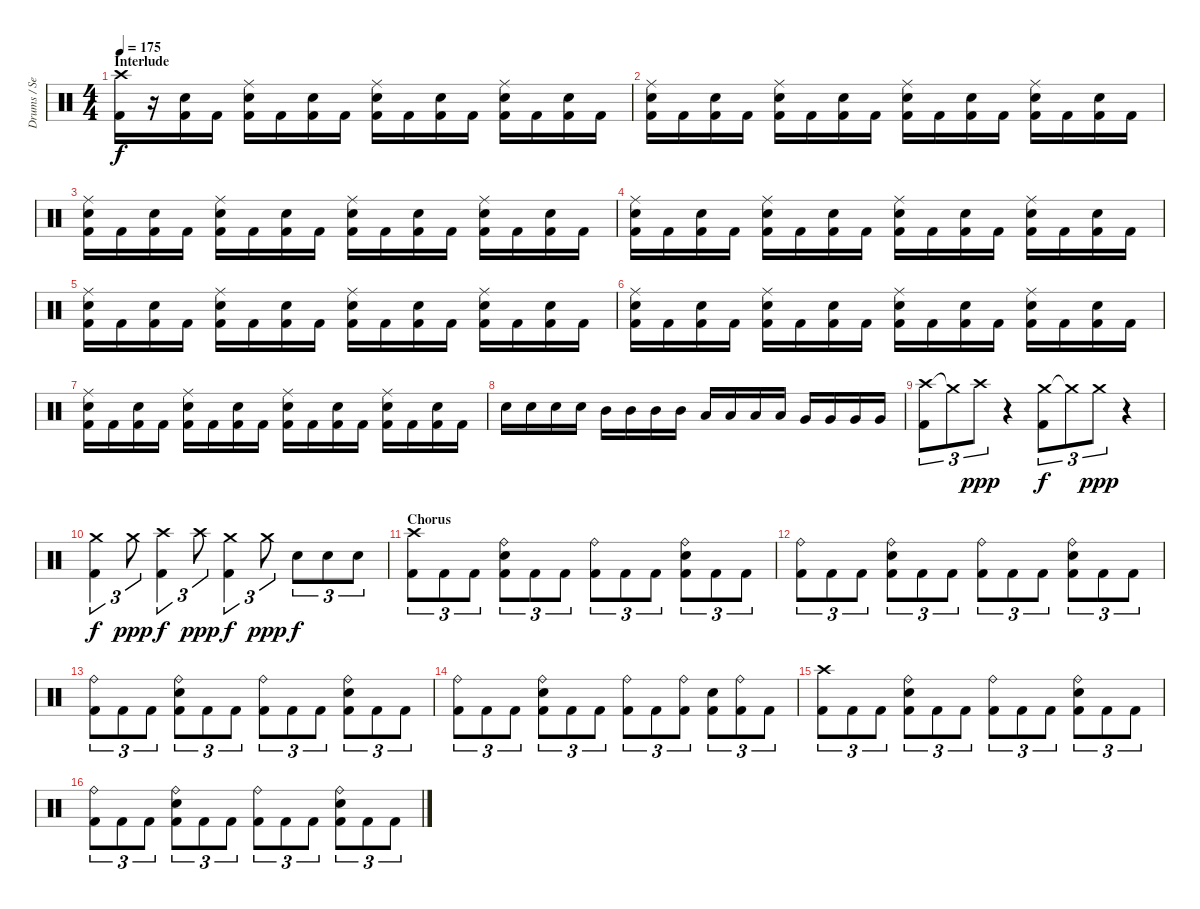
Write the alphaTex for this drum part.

\track ("Drums / Sean" "Drums / Se") {instrument percussion}
\staff {score}
\articulation defaults
\ts (4 4)
\section ("" "Interlude")
\tempo 175
\clef neutral
\ks c
("Crash high (hit)" "Kick (hit) 2").16{dy f} r.16 ("Electric Snare (hit)" "Kick (hit) 2").16 "Kick (hit) 2".16 ("Ride (middle)" "Electric Snare (hit)" "Kick (hit) 2").16 "Kick (hit) 2".16 ("Electric Snare (hit)" "Kick (hit) 2").16 "Kick (hit) 2".16 ("Ride (middle)" "Electric Snare (hit)" "Kick (hit) 2").16 "Kick (hit) 2".16 ("Electric Snare (hit)" "Kick (hit) 2").16 "Kick (hit) 2".16 ("Ride (middle)" "Electric Snare (hit)" "Kick (hit) 2").16 "Kick (hit) 2".16 ("Electric Snare (hit)" "Kick (hit) 2").16 "Kick (hit) 2".16 |
("Ride (middle)" "Electric Snare (hit)" "Kick (hit) 2").16 "Kick (hit) 2".16 ("Electric Snare (hit)" "Kick (hit) 2").16 "Kick (hit) 2".16 ("Ride (middle)" "Electric Snare (hit)" "Kick (hit) 2").16 "Kick (hit) 2".16 ("Electric Snare (hit)" "Kick (hit) 2").16 "Kick (hit) 2".16 ("Ride (middle)" "Electric Snare (hit)" "Kick (hit) 2").16 "Kick (hit) 2".16 ("Electric Snare (hit)" "Kick (hit) 2").16 "Kick (hit) 2".16 ("Ride (middle)" "Electric Snare (hit)" "Kick (hit) 2").16 "Kick (hit) 2".16 ("Electric Snare (hit)" "Kick (hit) 2").16 "Kick (hit) 2".16 |
("Ride (middle)" "Electric Snare (hit)" "Kick (hit) 2").16 "Kick (hit) 2".16 ("Electric Snare (hit)" "Kick (hit) 2").16 "Kick (hit) 2".16 ("Ride (middle)" "Electric Snare (hit)" "Kick (hit) 2").16 "Kick (hit) 2".16 ("Electric Snare (hit)" "Kick (hit) 2").16 "Kick (hit) 2".16 ("Ride (middle)" "Electric Snare (hit)" "Kick (hit) 2").16 "Kick (hit) 2".16 ("Electric Snare (hit)" "Kick (hit) 2").16 "Kick (hit) 2".16 ("Ride (middle)" "Electric Snare (hit)" "Kick (hit) 2").16 "Kick (hit) 2".16 ("Electric Snare (hit)" "Kick (hit) 2").16 "Kick (hit) 2".16 |
("Ride (middle)" "Electric Snare (hit)" "Kick (hit) 2").16 "Kick (hit) 2".16 ("Electric Snare (hit)" "Kick (hit) 2").16 "Kick (hit) 2".16 ("Ride (middle)" "Electric Snare (hit)" "Kick (hit) 2").16 "Kick (hit) 2".16 ("Electric Snare (hit)" "Kick (hit) 2").16 "Kick (hit) 2".16 ("Ride (middle)" "Electric Snare (hit)" "Kick (hit) 2").16 "Kick (hit) 2".16 ("Electric Snare (hit)" "Kick (hit) 2").16 "Kick (hit) 2".16 ("Ride (middle)" "Electric Snare (hit)" "Kick (hit) 2").16 "Kick (hit) 2".16 ("Electric Snare (hit)" "Kick (hit) 2").16 "Kick (hit) 2".16 |
("Ride (middle)" "Electric Snare (hit)" "Kick (hit) 2").16 "Kick (hit) 2".16 ("Electric Snare (hit)" "Kick (hit) 2").16 "Kick (hit) 2".16 ("Ride (middle)" "Electric Snare (hit)" "Kick (hit) 2").16 "Kick (hit) 2".16 ("Electric Snare (hit)" "Kick (hit) 2").16 "Kick (hit) 2".16 ("Ride (middle)" "Electric Snare (hit)" "Kick (hit) 2").16 "Kick (hit) 2".16 ("Electric Snare (hit)" "Kick (hit) 2").16 "Kick (hit) 2".16 ("Ride (middle)" "Electric Snare (hit)" "Kick (hit) 2").16 "Kick (hit) 2".16 ("Electric Snare (hit)" "Kick (hit) 2").16 "Kick (hit) 2".16 |
("Ride (middle)" "Electric Snare (hit)" "Kick (hit) 2").16 "Kick (hit) 2".16 ("Electric Snare (hit)" "Kick (hit) 2").16 "Kick (hit) 2".16 ("Ride (middle)" "Electric Snare (hit)" "Kick (hit) 2").16 "Kick (hit) 2".16 ("Electric Snare (hit)" "Kick (hit) 2").16 "Kick (hit) 2".16 ("Ride (middle)" "Electric Snare (hit)" "Kick (hit) 2").16 "Kick (hit) 2".16 ("Electric Snare (hit)" "Kick (hit) 2").16 "Kick (hit) 2".16 ("Ride (middle)" "Electric Snare (hit)" "Kick (hit) 2").16 "Kick (hit) 2".16 ("Electric Snare (hit)" "Kick (hit) 2").16 "Kick (hit) 2".16 |
("Ride (middle)" "Electric Snare (hit)" "Kick (hit) 2").16 "Kick (hit) 2".16 ("Electric Snare (hit)" "Kick (hit) 2").16 "Kick (hit) 2".16 ("Ride (middle)" "Electric Snare (hit)" "Kick (hit) 2").16 "Kick (hit) 2".16 ("Electric Snare (hit)" "Kick (hit) 2").16 "Kick (hit) 2".16 ("Ride (middle)" "Electric Snare (hit)" "Kick (hit) 2").16 "Kick (hit) 2".16 ("Electric Snare (hit)" "Kick (hit) 2").16 "Kick (hit) 2".16 ("Ride (middle)" "Electric Snare (hit)" "Kick (hit) 2").16 "Kick (hit) 2".16 ("Electric Snare (hit)" "Kick (hit) 2").16 "Kick (hit) 2".16 |
"Electric Snare (hit)".16 "Electric Snare (hit)".16 "Electric Snare (hit)".16 "Electric Snare (hit)".16 "Mid Tom (hit)".16 "Mid Tom (hit)".16 "Mid Tom (hit)".16 "Mid Tom (hit)".16 "Low Tom (hit)".16 "Low Tom (hit)".16 "Low Tom (hit)".16 "Low Tom (hit)".16 "Very Low Tom (hit)".16 "Very Low Tom (hit)".16 "Very Low Tom (hit)".16 "Very Low Tom (hit)".16 |
("Crash high (hit)" "Kick (hit) 2").8{tu (3 2)} "Crash medium (hit)"{t}.8{tu (3 2)} "Crash high (hit)".8{tu (3 2) dy ppp} r.4 ("Crash medium (hit)" "Kick (hit) 2").8{tu (3 2) dy f} "Crash medium (hit)"{t}.8{tu (3 2)} "Crash medium (hit)".8{tu (3 2) dy ppp} r.4 |
("Crash medium (hit)" "Kick (hit) 2").4{tu (3 2) dy f} "Crash medium (hit)".8{tu (3 2) dy ppp} ("Crash high (hit)" "Kick (hit) 2").4{tu (3 2) dy f} "Crash high (hit)".8{tu (3 2) dy ppp} ("Crash medium (hit)" "Kick (hit) 2").4{tu (3 2) dy f} "Crash medium (hit)".8{tu (3 2) dy ppp} "Electric Snare (hit)".8{tu (3 2) dy f} "Electric Snare (hit)".8{tu (3 2)} "Electric Snare (hit)".8{tu (3 2)} |
\section ("" "Chorus")
("Crash high (hit)" "Kick (hit) 2").8{tu (3 2)} "Kick (hit) 2".8{tu (3 2)} "Kick (hit) 2".8{tu (3 2)} ("Ride (bell)" "Electric Snare (hit)" "Kick (hit) 2").8{tu (3 2)} "Kick (hit) 2".8{tu (3 2)} "Kick (hit) 2".8{tu (3 2)} ("Ride (bell)" "Kick (hit) 2").8{tu (3 2)} "Kick (hit) 2".8{tu (3 2)} "Kick (hit) 2".8{tu (3 2)} ("Ride (bell)" "Electric Snare (hit)" "Kick (hit) 2").8{tu (3 2)} "Kick (hit) 2".8{tu (3 2)} "Kick (hit) 2".8{tu (3 2)} |
("Ride (bell)" "Kick (hit) 2").8{tu (3 2)} "Kick (hit) 2".8{tu (3 2)} "Kick (hit) 2".8{tu (3 2)} ("Ride (bell)" "Electric Snare (hit)" "Kick (hit) 2").8{tu (3 2)} "Kick (hit) 2".8{tu (3 2)} "Kick (hit) 2".8{tu (3 2)} ("Ride (bell)" "Kick (hit) 2").8{tu (3 2)} "Kick (hit) 2".8{tu (3 2)} "Kick (hit) 2".8{tu (3 2)} ("Ride (bell)" "Electric Snare (hit)" "Kick (hit) 2").8{tu (3 2)} "Kick (hit) 2".8{tu (3 2)} "Kick (hit) 2".8{tu (3 2)} |
("Ride (bell)" "Kick (hit) 2").8{tu (3 2)} "Kick (hit) 2".8{tu (3 2)} "Kick (hit) 2".8{tu (3 2)} ("Ride (bell)" "Electric Snare (hit)" "Kick (hit) 2").8{tu (3 2)} "Kick (hit) 2".8{tu (3 2)} "Kick (hit) 2".8{tu (3 2)} ("Ride (bell)" "Kick (hit) 2").8{tu (3 2)} "Kick (hit) 2".8{tu (3 2)} "Kick (hit) 2".8{tu (3 2)} ("Ride (bell)" "Electric Snare (hit)" "Kick (hit) 2").8{tu (3 2)} "Kick (hit) 2".8{tu (3 2)} "Kick (hit) 2".8{tu (3 2)} |
("Ride (bell)" "Kick (hit) 2").8{tu (3 2)} "Kick (hit) 2".8{tu (3 2)} "Kick (hit) 2".8{tu (3 2)} ("Ride (bell)" "Electric Snare (hit)" "Kick (hit) 2").8{tu (3 2)} "Kick (hit) 2".8{tu (3 2)} "Kick (hit) 2".8{tu (3 2)} ("Ride (bell)" "Kick (hit) 2").8{tu (3 2)} "Kick (hit) 2".8{tu (3 2)} ("Ride (bell)" "Kick (hit) 2").8{tu (3 2)} ("Electric Snare (hit)" "Kick (hit) 2").8{tu (3 2)} ("Ride (bell)" "Kick (hit) 2").8{tu (3 2)} "Kick (hit) 2".8{tu (3 2)} |
("Crash high (hit)" "Kick (hit) 2").8{tu (3 2)} "Kick (hit) 2".8{tu (3 2)} "Kick (hit) 2".8{tu (3 2)} ("Ride (bell)" "Electric Snare (hit)" "Kick (hit) 2").8{tu (3 2)} "Kick (hit) 2".8{tu (3 2)} "Kick (hit) 2".8{tu (3 2)} ("Ride (bell)" "Kick (hit) 2").8{tu (3 2)} "Kick (hit) 2".8{tu (3 2)} "Kick (hit) 2".8{tu (3 2)} ("Ride (bell)" "Electric Snare (hit)" "Kick (hit) 2").8{tu (3 2)} "Kick (hit) 2".8{tu (3 2)} "Kick (hit) 2".8{tu (3 2)} |
("Ride (bell)" "Kick (hit) 2").8{tu (3 2)} "Kick (hit) 2".8{tu (3 2)} "Kick (hit) 2".8{tu (3 2)} ("Ride (bell)" "Electric Snare (hit)" "Kick (hit) 2").8{tu (3 2)} "Kick (hit) 2".8{tu (3 2)} "Kick (hit) 2".8{tu (3 2)} ("Ride (bell)" "Kick (hit) 2").8{tu (3 2)} "Kick (hit) 2".8{tu (3 2)} "Kick (hit) 2".8{tu (3 2)} ("Ride (bell)" "Electric Snare (hit)" "Kick (hit) 2").8{tu (3 2)} "Kick (hit) 2".8{tu (3 2)} "Kick (hit) 2".8{tu (3 2)}
